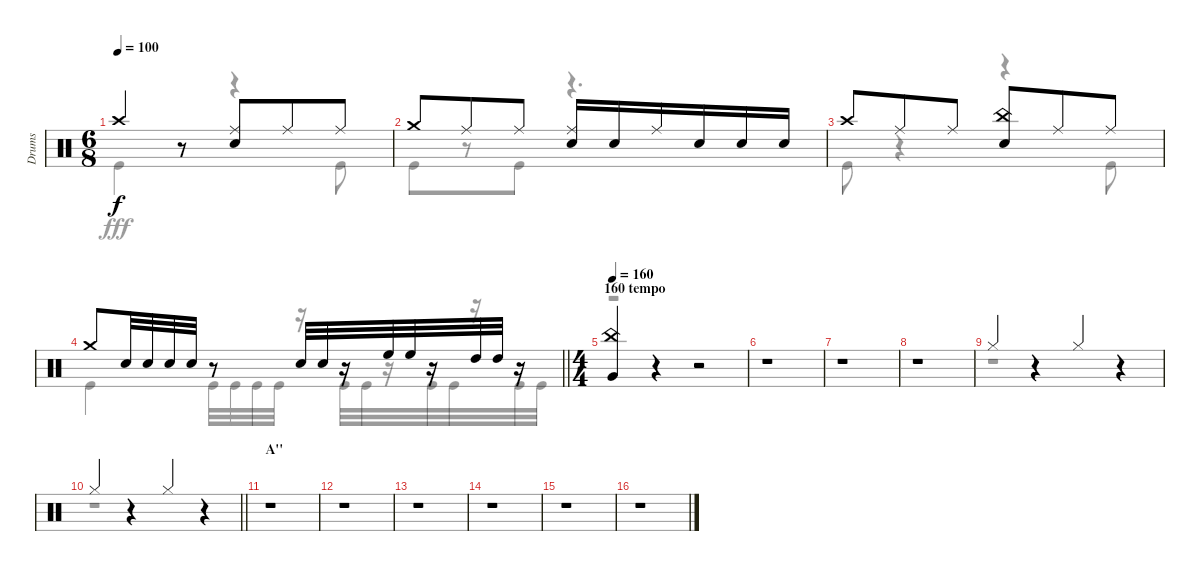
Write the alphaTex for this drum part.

\track ("Drums" "Drums") {instrument percussion}
\staff {score}
\articulation defaults
\voice
\ts (6 8)
\tempo 100
\clef neutral
\ks c "Crash high (hit)".4{dy f}
r.8 ("Ride (middle)" "Snare (hit) 2").8 "Ride (middle)".8 "Ride (middle)".8 |
"Crash medium (hit)".8 "Ride (middle)".8 "Ride (middle)".8 ("Ride (middle)" "Snare (hit) 2").16 "Snare (hit) 2".16 "Ride (middle)".16 "Snare (hit) 2".16 "Snare (hit) 2".16 "Snare (hit) 2".16 |
"Crash high (hit)".8 "Ride (middle)".8 "Ride (middle)".8 ("China (hit)" "Snare (hit) 2").8 "Ride (middle)".8 "Ride (middle)".8 |
\barLineRight lightlight "Crash medium (hit)".8 "Snare (hit) 2".32 "Snare (hit) 2".32 "Snare (hit) 2".32 "Snare (hit) 2".32
r.8 "Snare (hit) 2".32 "Snare (hit) 2".32 r.16 "High Floor Tom (hit)".32 "High Floor Tom (hit)".32 r.16 "High Tom (hit)".32 "High Tom (hit)".32 r.16 |
\ts (4 4)
\section ("" "160 tempo")
\tempo 160
("China (hit)" "Very Low Tom (hit)").4 r.4 r.2 |
r.1 |
r.1 |
r.1 |
"Hi-Hat (closed)".4 r.4 "Hi-Hat (closed)".4 r.4 |
\barLineRight lightlight "Hi-Hat (closed)".4
r.4 "Hi-Hat (closed)".4 r.4 |
\section ("" "A''")
r.1 |
r.1 |
r.1 |
r.1 |
r.1 |
r.1
\voice
\clef neutral
\ottava regular
\simile none
\ks c "Kick (hit)".4{dy fff}
r.8 r.4 "Kick (hit)".8 |
"Kick (hit)".8 r.8 "Kick (hit)".8 r.4{d} |
"Kick (hit)".8 r.4 r.4 "Kick (hit)".8 |
\barLineRight lightlight "Kick (hit)".4 "Kick (hit)".32 "Kick (hit)".32 "Kick (hit)".32 "Kick (hit)".32
r.16 "Kick (hit)".32 "Kick (hit)".32 r.16 "Kick (hit)".32 "Kick (hit)".32 r.16 "Kick (hit)".32 "Kick (hit)".32 |
r.1 |
r.1 |
r.1 |
r.1 |
r.1 |
\barLineRight lightlight
r.1 |
r.1 |
r.1 |
r.1 |
r.1 |
r.1 |
r.1
